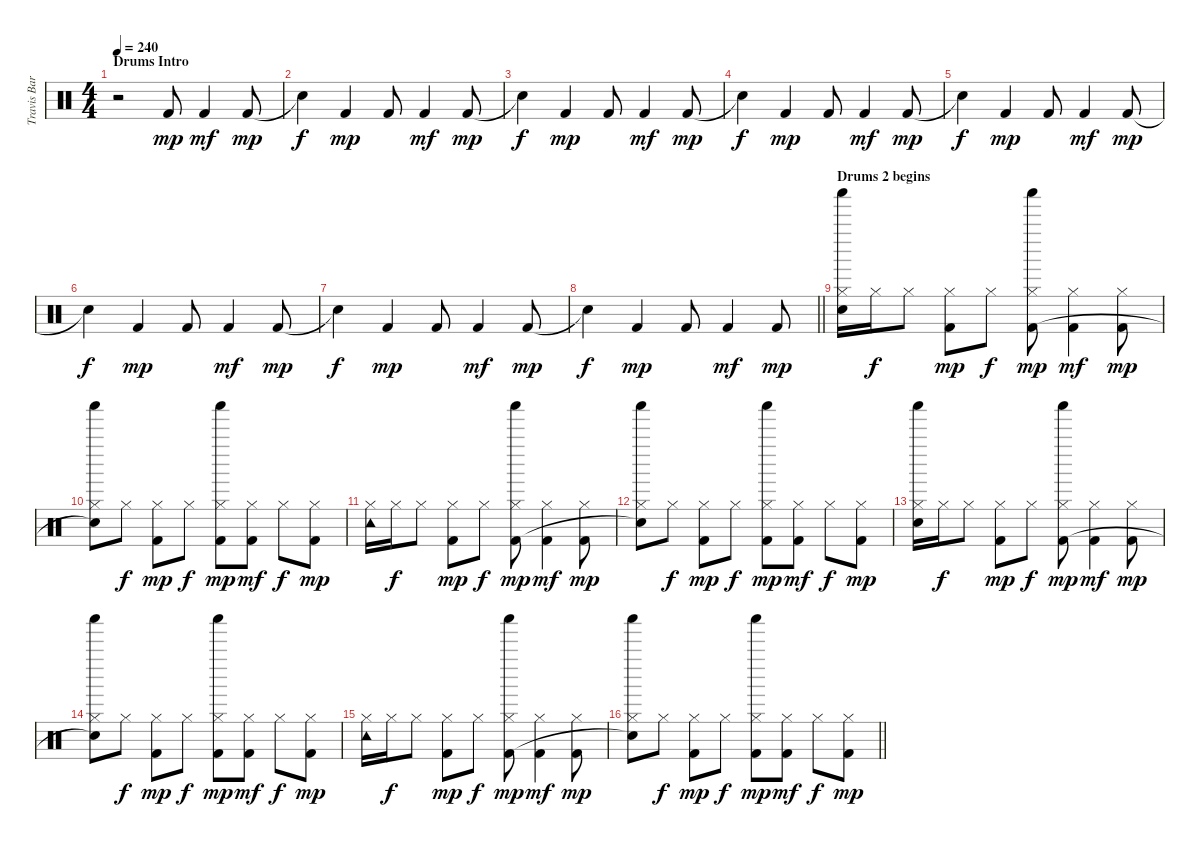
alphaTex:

\track ("Travis Barker - Drums" "Travis Bar") {instrument percussion}
\staff {score}
\articulation defaults
\ts (4 4)
\section ("" "Drums Intro")
\tempo 240
\clef neutral
\ks c
r.2{dy mp} "Kick (hit) 2".8 "Kick (hit) 2".4{dy mf} "Kick (hit) 2".8{dy mp} |
"Snare (hit)"{t}.4{dy f} "Kick (hit) 2".4{dy mp} "Kick (hit) 2".8 "Kick (hit) 2".4{dy mf} "Kick (hit) 2".8{dy mp} |
"Snare (hit)"{t}.4{dy f} "Kick (hit) 2".4{dy mp} "Kick (hit) 2".8 "Kick (hit) 2".4{dy mf} "Kick (hit) 2".8{dy mp} |
"Snare (hit)"{t}.4{dy f} "Kick (hit) 2".4{dy mp} "Kick (hit) 2".8 "Kick (hit) 2".4{dy mf} "Kick (hit) 2".8{dy mp} |
"Snare (hit)"{t}.4{dy f} "Kick (hit) 2".4{dy mp} "Kick (hit) 2".8 "Kick (hit) 2".4{dy mf} "Kick (hit) 2".8{dy mp} |
"Snare (hit)"{t}.4{dy f} "Kick (hit) 2".4{dy mp} "Kick (hit) 2".8 "Kick (hit) 2".4{dy mf} "Kick (hit) 2".8{dy mp} |
"Snare (hit)"{t}.4{dy f} "Kick (hit) 2".4{dy mp} "Kick (hit) 2".8 "Kick (hit) 2".4{dy mf} "Kick (hit) 2".8{dy mp} |
\barLineRight lightlight "Snare (hit)"{t}.4{dy f} "Kick (hit) 2".4{dy mp} "Kick (hit) 2".8 "Kick (hit) 2".4{dy mf} "Kick (hit) 2".8{dy mp}
|
\section ("" "Drums 2 begins")
("Hi-Hat (closed)" "Shaker (hit)" "Electric Snare (hit)").16 "Hi-Hat (closed)".16{dy f} "Hi-Hat (closed)".8 ("Hi-Hat (closed)" "Kick (hit) 2").8{dy mp} "Hi-Hat (closed)".8{dy f} ("Hi-Hat (closed)" "Shaker (hit)" "Kick (hit) 2").8{dy mp} ("Hi-Hat (closed)" "Kick (hit) 2").4{dy mf} ("Hi-Hat (closed)" "Kick (hit) 2").8{dy mp} |
("Hi-Hat (closed)" "Shaker (hit)" "Snare (hit)"{t}).8 "Hi-Hat (closed)".8{dy f} ("Hi-Hat (closed)" "Kick (hit) 2").8{dy mp} "Hi-Hat (closed)".8{dy f} ("Hi-Hat (closed)" "Shaker (hit)" "Kick (hit) 2").8{dy mp} ("Hi-Hat (closed)" "Kick (hit) 2").8{dy mf} "Hi-Hat (closed)".8{dy f} ("Hi-Hat (closed)" "Kick (hit) 2").8{dy mp} |
("Hi-Hat (closed)" "Tambourine (hit)").16 "Hi-Hat (closed)".16{dy f} "Hi-Hat (closed)".8 ("Hi-Hat (closed)" "Kick (hit) 2").8{dy mp} "Hi-Hat (closed)".8{dy f} ("Hi-Hat (closed)" "Shaker (hit)" "Kick (hit) 2").8{dy mp} ("Hi-Hat (closed)" "Kick (hit) 2").4{dy mf} ("Hi-Hat (closed)" "Kick (hit) 2").8{dy mp} |
("Hi-Hat (closed)" "Shaker (hit)" "Snare (hit)"{t}).8 "Hi-Hat (closed)".8{dy f} ("Hi-Hat (closed)" "Kick (hit) 2").8{dy mp} "Hi-Hat (closed)".8{dy f} ("Hi-Hat (closed)" "Shaker (hit)" "Kick (hit) 2").8{dy mp} ("Hi-Hat (closed)" "Kick (hit) 2").8{dy mf} "Hi-Hat (closed)".8{dy f} ("Hi-Hat (closed)" "Kick (hit) 2").8{dy mp} |
("Hi-Hat (closed)" "Shaker (hit)" "Electric Snare (hit)").16 "Hi-Hat (closed)".16{dy f} "Hi-Hat (closed)".8 ("Hi-Hat (closed)" "Kick (hit) 2").8{dy mp} "Hi-Hat (closed)".8{dy f} ("Hi-Hat (closed)" "Shaker (hit)" "Kick (hit) 2").8{dy mp} ("Hi-Hat (closed)" "Kick (hit) 2").4{dy mf} ("Hi-Hat (closed)" "Kick (hit) 2").8{dy mp} |
("Hi-Hat (closed)" "Shaker (hit)" "Snare (hit)"{t}).8 "Hi-Hat (closed)".8{dy f} ("Hi-Hat (closed)" "Kick (hit) 2").8{dy mp} "Hi-Hat (closed)".8{dy f} ("Hi-Hat (closed)" "Shaker (hit)" "Kick (hit) 2").8{dy mp} ("Hi-Hat (closed)" "Kick (hit) 2").8{dy mf} "Hi-Hat (closed)".8{dy f} ("Hi-Hat (closed)" "Kick (hit) 2").8{dy mp} |
("Hi-Hat (closed)" "Tambourine (hit)").16 "Hi-Hat (closed)".16{dy f} "Hi-Hat (closed)".8 ("Hi-Hat (closed)" "Kick (hit) 2").8{dy mp} "Hi-Hat (closed)".8{dy f} ("Hi-Hat (closed)" "Shaker (hit)" "Kick (hit) 2").8{dy mp} ("Hi-Hat (closed)" "Kick (hit) 2").4{dy mf} ("Hi-Hat (closed)" "Kick (hit) 2").8{dy mp} |
\barLineRight lightlight
("Hi-Hat (closed)" "Shaker (hit)" "Snare (hit)"{t}).8 "Hi-Hat (closed)".8{dy f} ("Hi-Hat (closed)" "Kick (hit) 2").8{dy mp} "Hi-Hat (closed)".8{dy f} ("Hi-Hat (closed)" "Shaker (hit)" "Kick (hit) 2").8{dy mp} ("Hi-Hat (closed)" "Kick (hit) 2").8{dy mf} "Hi-Hat (closed)".8{dy f} ("Hi-Hat (closed)" "Kick (hit) 2").8{dy mp}
